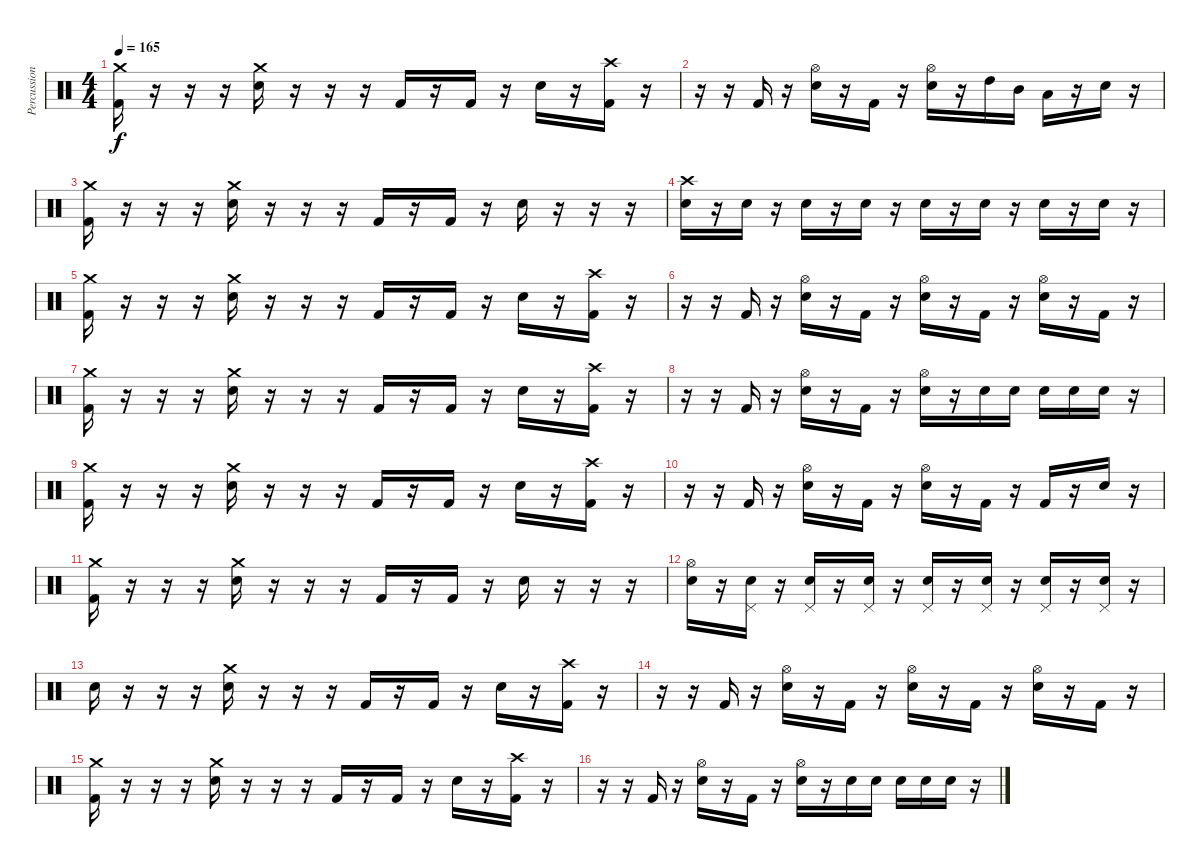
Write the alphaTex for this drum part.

\track ("Percussion" "Percussion") {instrument percussion}
\staff {score}
\articulation defaults
\ts (4 4)
\tempo 165
\clef neutral
\ks c
("Crash medium (hit)" "Kick (hit) 2").16{dy f} r.16 r.16 r.16 ("Crash medium (hit)" "Electric Snare (hit)").16 r.16 r.16 r.16 "Kick (hit) 2".16 r.16 "Kick (hit) 2".16 r.16 "Electric Snare (hit)".16 r.16 ("Crash high (hit)" "Kick (hit) 2").16 r.16 |
r.16 r.16 "Kick (hit) 2".16 r.16 ("Hi-Hat (open)" "Electric Snare (hit)").16 r.16 "Kick (hit) 2".16 r.16 ("Hi-Hat (open)" "Electric Snare (hit)").16 r.16 "High Tom (hit)".16 "Mid Tom (hit)".16 "Low Tom (hit)".16 r.16 "Electric Snare (hit)".16 r.16 |
("Crash medium (hit)" "Kick (hit) 2").16 r.16 r.16 r.16 ("Crash medium (hit)" "Electric Snare (hit)").16 r.16 r.16 r.16 "Kick (hit) 2".16 r.16 "Kick (hit) 2".16 r.16 "Electric Snare (hit)".16 r.16 r.16 r.16 |
("Crash high (hit)" "Electric Snare (hit)").16 r.16 "Electric Snare (hit)".16 r.16 "Electric Snare (hit)".16 r.16 "Electric Snare (hit)".16 r.16 "Electric Snare (hit)".16 r.16 "Electric Snare (hit)".16 r.16 "Electric Snare (hit)".16 r.16 "Electric Snare (hit)".16 r.16 |
("Crash medium (hit)" "Kick (hit) 2").16 r.16 r.16 r.16 ("Crash medium (hit)" "Electric Snare (hit)").16 r.16 r.16 r.16 "Kick (hit) 2".16 r.16 "Kick (hit) 2".16 r.16 "Electric Snare (hit)".16 r.16 ("Crash high (hit)" "Kick (hit) 2").16 r.16 |
r.16 r.16 "Kick (hit) 2".16 r.16 ("Hi-Hat (open)" "Electric Snare (hit)").16 r.16 "Kick (hit) 2".16 r.16 ("Hi-Hat (open)" "Electric Snare (hit)").16 r.16 "Kick (hit) 2".16 r.16 ("Hi-Hat (open)" "Electric Snare (hit)").16 r.16 "Kick (hit) 2".16 r.16 |
("Crash medium (hit)" "Kick (hit) 2").16 r.16 r.16 r.16 ("Crash medium (hit)" "Electric Snare (hit)").16 r.16 r.16 r.16 "Kick (hit) 2".16 r.16 "Kick (hit) 2".16 r.16 "Electric Snare (hit)".16 r.16 ("Crash high (hit)" "Kick (hit) 2").16 r.16 |
r.16 r.16 "Kick (hit) 2".16 r.16 ("Hi-Hat (open)" "Electric Snare (hit)").16 r.16 "Kick (hit) 2".16 r.16 ("Hi-Hat (open)" "Electric Snare (hit)").16 r.16 "Electric Snare (hit)".16 "Electric Snare (hit)".16 "Electric Snare (hit)".16 "Electric Snare (hit)".16 "Electric Snare (hit)".16 r.16 |
("Crash medium (hit)" "Kick (hit) 2").16 r.16 r.16 r.16 ("Crash medium (hit)" "Electric Snare (hit)").16 r.16 r.16 r.16 "Kick (hit) 2".16 r.16 "Kick (hit) 2".16 r.16 "Electric Snare (hit)".16 r.16 ("Crash high (hit)" "Kick (hit) 2").16 r.16 |
r.16 r.16 "Kick (hit) 2".16 r.16 ("Hi-Hat (open)" "Electric Snare (hit)").16 r.16 "Kick (hit) 2".16 r.16 ("Hi-Hat (open)" "Electric Snare (hit)").16 r.16 "Kick (hit) 2".16 r.16 "Kick (hit) 2".16 r.16 "Electric Snare (hit)".16 r.16 |
("Crash medium (hit)" "Kick (hit) 2").16 r.16 r.16 r.16 ("Crash medium (hit)" "Electric Snare (hit)").16 r.16 r.16 r.16 "Kick (hit) 2".16 r.16 "Kick (hit) 2".16 r.16 "Electric Snare (hit)".16 r.16 r.16 r.16 |
("Hi-Hat (open)" "Electric Snare (hit)").16 r.16 ("Pedal Hi-Hat (hit)" "Electric Snare (hit)").16 r.16 ("Pedal Hi-Hat (hit)" "Electric Snare (hit)").16 r.16 ("Pedal Hi-Hat (hit)" "Electric Snare (hit)").16 r.16 ("Pedal Hi-Hat (hit)" "Electric Snare (hit)").16 r.16 ("Pedal Hi-Hat (hit)" "Electric Snare (hit)").16 r.16 ("Pedal Hi-Hat (hit)" "Electric Snare (hit)").16 r.16 ("Pedal Hi-Hat (hit)" "Electric Snare (hit)").16 r.16 |
"Electric Snare (hit)".16 r.16 r.16 r.16 ("Crash medium (hit)" "Electric Snare (hit)").16 r.16 r.16 r.16 "Kick (hit) 2".16 r.16 "Kick (hit) 2".16 r.16 "Electric Snare (hit)".16 r.16 ("Crash high (hit)" "Kick (hit) 2").16 r.16 |
r.16 r.16 "Kick (hit) 2".16 r.16 ("Hi-Hat (open)" "Electric Snare (hit)").16 r.16 "Kick (hit) 2".16 r.16 ("Hi-Hat (open)" "Electric Snare (hit)").16 r.16 "Kick (hit) 2".16 r.16 ("Hi-Hat (open)" "Electric Snare (hit)").16 r.16 "Kick (hit) 2".16 r.16 |
("Crash medium (hit)" "Kick (hit) 2").16 r.16 r.16 r.16 ("Crash medium (hit)" "Electric Snare (hit)").16 r.16 r.16 r.16 "Kick (hit) 2".16 r.16 "Kick (hit) 2".16 r.16 "Electric Snare (hit)".16 r.16 ("Crash high (hit)" "Kick (hit) 2").16 r.16 |
r.16 r.16 "Kick (hit) 2".16 r.16 ("Hi-Hat (open)" "Electric Snare (hit)").16 r.16 "Kick (hit) 2".16 r.16 ("Hi-Hat (open)" "Electric Snare (hit)").16 r.16 "Electric Snare (hit)".16 "Electric Snare (hit)".16 "Electric Snare (hit)".16 "Electric Snare (hit)".16 "Electric Snare (hit)".16 r.16
